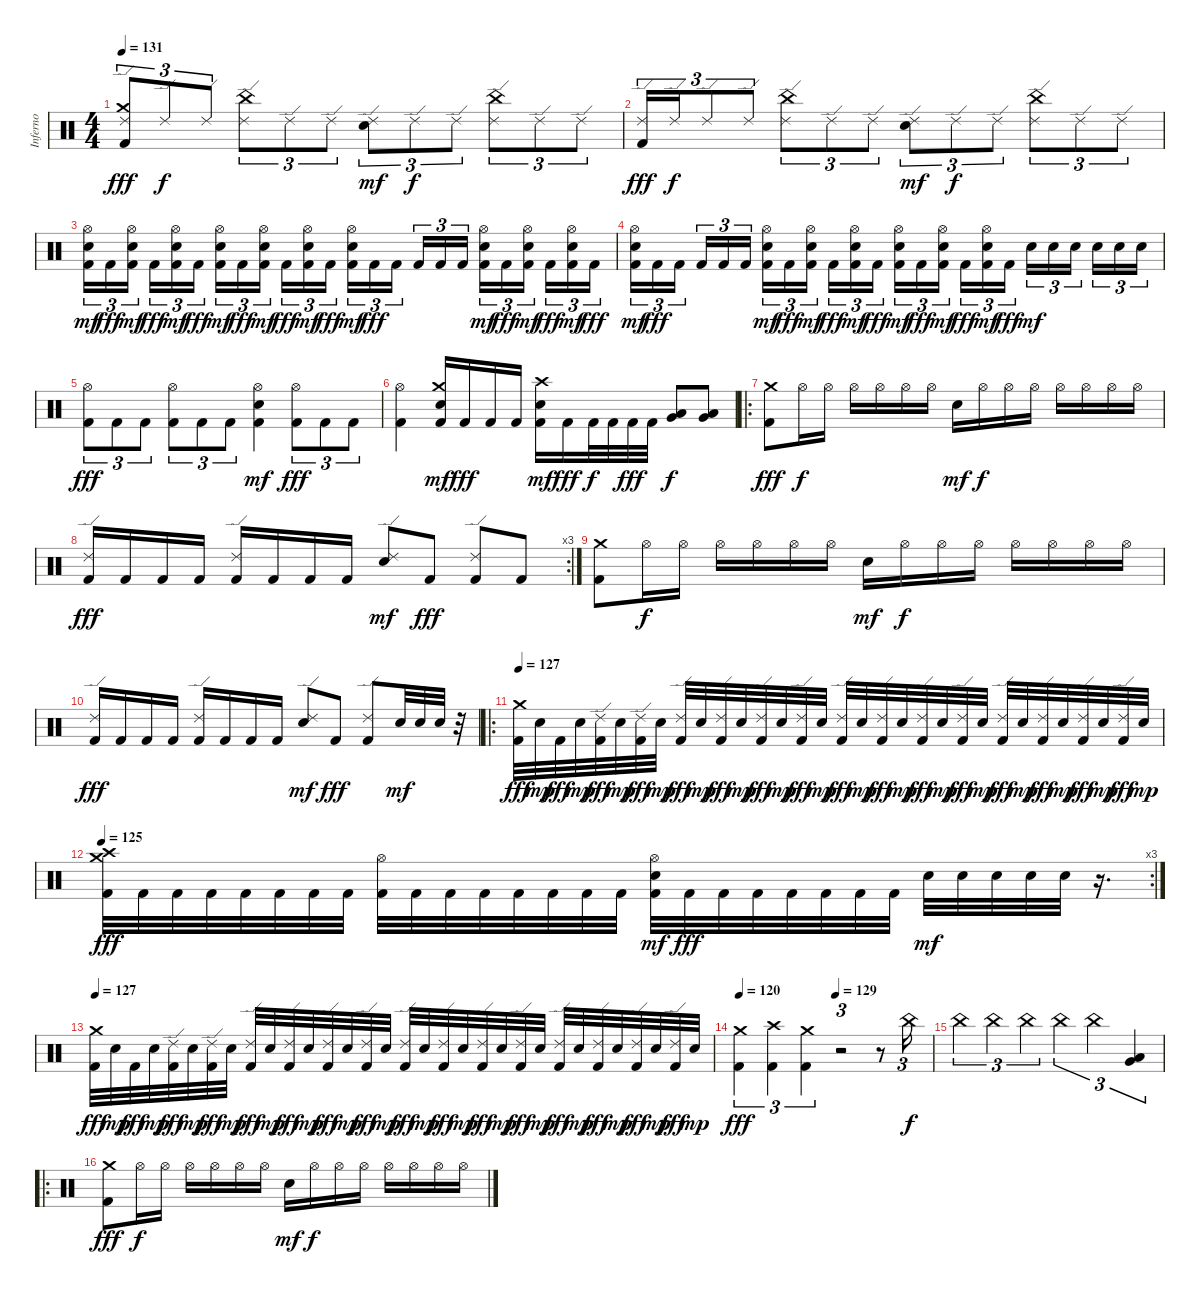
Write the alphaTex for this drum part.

\track ("Inferno" "Inferno") {instrument percussion}
\staff {score}
\articulation defaults
\ts (4 4)
\tempo 131
\clef neutral
\ks c
("Kick (hit) 2" "Crash medium (hit)" "Ride (edge) 2").8{tu (3 2) dy fff} "Ride (edge) 2".8{tu (3 2) dy f} "Ride (edge) 2".8{tu (3 2)} ("Ride (edge) 2" "China (hit)").8{tu (3 2)} "Ride (edge) 2".8{tu (3 2)} "Ride (edge) 2".8{tu (3 2)} ("Electric Snare (hit)" "Ride (edge) 2").8{tu (3 2) dy mf} "Ride (edge) 2".8{tu (3 2) dy f} "Ride (edge) 2".8{tu (3 2)} ("Ride (edge) 2" "China (hit)").8{tu (3 2)} "Ride (edge) 2".8{tu (3 2)} "Ride (edge) 2".8{tu (3 2)} |
("Kick (hit) 2" "Ride (edge) 2").16{tu (3 2) dy fff} "Ride (edge) 2".16{tu (3 2) dy f} "Ride (edge) 2".8{tu (3 2)} "Ride (edge) 2".8{tu (3 2)} ("Ride (edge) 2" "China (hit)").8{tu (3 2)} "Ride (edge) 2".8{tu (3 2)} "Ride (edge) 2".8{tu (3 2)} ("Electric Snare (hit)" "Ride (edge) 2").8{tu (3 2) dy mf} "Ride (edge) 2".8{tu (3 2) dy f} "Ride (edge) 2".8{tu (3 2)} ("Ride (edge) 2" "China (hit)").8{tu (3 2)} "Ride (edge) 2".8{tu (3 2)} "Ride (edge) 2".8{tu (3 2)} |
("Kick (hit) 2" "Electric Snare (hit)" "Hi-Hat (open)").16{tu (3 2) dy mf} "Kick (hit) 2".16{tu (3 2) dy fff} ("Kick (hit) 2" "Electric Snare (hit)" "Hi-Hat (open)").16{tu (3 2) dy mf beam splitsecondary} "Kick (hit) 2".16{tu (3 2) dy fff} ("Kick (hit) 2" "Electric Snare (hit)" "Hi-Hat (open)").16{tu (3 2) dy mf} "Kick (hit) 2".16{tu (3 2) dy fff} ("Kick (hit) 2" "Electric Snare (hit)" "Hi-Hat (open)").16{tu (3 2) dy mf} "Kick (hit) 2".16{tu (3 2) dy fff} ("Kick (hit) 2" "Electric Snare (hit)" "Hi-Hat (open)").16{tu (3 2) dy mf beam splitsecondary} "Kick (hit) 2".16{tu (3 2) dy fff} ("Kick (hit) 2" "Electric Snare (hit)" "Hi-Hat (open)").16{tu (3 2) dy mf} "Kick (hit) 2".16{tu (3 2) dy fff} ("Kick (hit) 2" "Electric Snare (hit)" "Hi-Hat (open)").16{tu (3 2) dy mf} "Kick (hit) 2".16{tu (3 2) dy fff} "Kick (hit) 2".16{tu (3 2) beam splitsecondary} "Kick (hit) 2".16{tu (3 2)} "Kick (hit) 2".16{tu (3 2)} "Kick (hit) 2".16{tu (3 2)} ("Kick (hit) 2" "Electric Snare (hit)" "Hi-Hat (open)").16{tu (3 2) dy mf} "Kick (hit) 2".16{tu (3 2) dy fff} ("Kick (hit) 2" "Electric Snare (hit)" "Hi-Hat (open)").16{tu (3 2) dy mf beam splitsecondary} "Kick (hit) 2".16{tu (3 2) dy fff} ("Kick (hit) 2" "Electric Snare (hit)" "Hi-Hat (open)").16{tu (3 2) dy mf} "Kick (hit) 2".16{tu (3 2) dy fff} |
("Kick (hit) 2" "Electric Snare (hit)" "Hi-Hat (open)").16{tu (3 2) dy mf} "Kick (hit) 2".16{tu (3 2) dy fff} "Kick (hit) 2".16{tu (3 2) beam splitsecondary} "Kick (hit) 2".16{tu (3 2)} "Kick (hit) 2".16{tu (3 2)} "Kick (hit) 2".16{tu (3 2)} ("Kick (hit) 2" "Electric Snare (hit)" "Hi-Hat (open)").16{tu (3 2) dy mf} "Kick (hit) 2".16{tu (3 2) dy fff} ("Kick (hit) 2" "Electric Snare (hit)" "Hi-Hat (open)").16{tu (3 2) dy mf beam splitsecondary} "Kick (hit) 2".16{tu (3 2) dy fff} ("Kick (hit) 2" "Electric Snare (hit)" "Hi-Hat (open)").16{tu (3 2) dy mf} "Kick (hit) 2".16{tu (3 2) dy fff} ("Kick (hit) 2" "Electric Snare (hit)" "Hi-Hat (open)").16{tu (3 2) dy mf} "Kick (hit) 2".16{tu (3 2) dy fff} ("Kick (hit) 2" "Electric Snare (hit)" "Hi-Hat (open)").16{tu (3 2) dy mf beam splitsecondary} "Kick (hit) 2".16{tu (3 2) dy fff} ("Kick (hit) 2" "Electric Snare (hit)" "Hi-Hat (open)").16{tu (3 2) dy mf} "Kick (hit) 2".16{tu (3 2) dy fff} "Electric Snare (hit)".16{tu (3 2) dy mf} "Electric Snare (hit)".16{tu (3 2)} "Electric Snare (hit)".16{tu (3 2) beam splitsecondary} "Electric Snare (hit)".16{tu (3 2)} "Electric Snare (hit)".16{tu (3 2)} "Electric Snare (hit)".16{tu (3 2)} |
("Kick (hit) 2" "Hi-Hat (open)").8{tu (3 2) dy fff} "Kick (hit) 2".8{tu (3 2)} "Kick (hit) 2".8{tu (3 2)} ("Kick (hit) 2" "Hi-Hat (open)").8{tu (3 2)} "Kick (hit) 2".8{tu (3 2)} "Kick (hit) 2".8{tu (3 2)} ("Kick (hit) 2" "Electric Snare (hit)" "Hi-Hat (open)").4{dy mf} ("Kick (hit) 2" "Hi-Hat (open)").8{tu (3 2) dy fff} "Kick (hit) 2".8{tu (3 2)} "Kick (hit) 2".8{tu (3 2)} |
("Kick (hit) 2" "Hi-Hat (open)").4 ("Kick (hit) 2" "Electric Snare (hit)" "Crash medium (hit)").16{dy mf} "Kick (hit) 2".16{dy fff} "Kick (hit) 2".16 "Kick (hit) 2".16 ("Kick (hit) 2" "Electric Snare (hit)" "Crash high (hit)").16{dy mf} "Kick (hit) 2".16{dy fff} "Kick (hit) 2".32{dy f} "Kick (hit) 2".32 "Kick (hit) 2".32{dy fff} "Kick (hit) 2".32 ("Very Low Tom (hit)" "Low Floor Tom (hit)").8{dy f} ("Very Low Tom (hit)" "Low Floor Tom (hit)").8 |
\ro
("Kick (hit) 2" "Crash medium (hit)").8{dy fff} "Hi-Hat (open)".16{dy f} "Hi-Hat (open)".16 "Hi-Hat (open)".16 "Hi-Hat (open)".16 "Hi-Hat (open)".16 "Hi-Hat (open)".16 "Electric Snare (hit)".16{dy mf} "Hi-Hat (open)".16{dy f} "Hi-Hat (open)".16 "Hi-Hat (open)".16 "Hi-Hat (open)".16 "Hi-Hat (open)".16 "Hi-Hat (open)".16 "Hi-Hat (open)".16 |
\rc 3
("Kick (hit) 2" "Ride (edge) 2").16{dy fff} "Kick (hit) 2".16 "Kick (hit) 2".16 "Kick (hit) 2".16 ("Kick (hit) 2" "Ride (edge) 2").16 "Kick (hit) 2".16 "Kick (hit) 2".16 "Kick (hit) 2".16 ("Electric Snare (hit)" "Ride (edge) 2").8{dy mf} "Kick (hit) 2".8{dy fff} ("Kick (hit) 2" "Ride (edge) 2").8 "Kick (hit) 2".8 |
("Kick (hit) 2" "Crash medium (hit)").8 "Hi-Hat (open)".16{dy f} "Hi-Hat (open)".16 "Hi-Hat (open)".16 "Hi-Hat (open)".16 "Hi-Hat (open)".16 "Hi-Hat (open)".16 "Electric Snare (hit)".16{dy mf} "Hi-Hat (open)".16{dy f} "Hi-Hat (open)".16 "Hi-Hat (open)".16 "Hi-Hat (open)".16 "Hi-Hat (open)".16 "Hi-Hat (open)".16 "Hi-Hat (open)".16 |
("Kick (hit) 2" "Ride (edge) 2").16{dy fff} "Kick (hit) 2".16 "Kick (hit) 2".16 "Kick (hit) 2".16 ("Kick (hit) 2" "Ride (edge) 2").16 "Kick (hit) 2".16 "Kick (hit) 2".16 "Kick (hit) 2".16 ("Electric Snare (hit)" "Ride (edge) 2").8{dy mf} "Kick (hit) 2".8{dy fff} ("Kick (hit) 2" "Ride (edge) 2").8 "Electric Snare (hit)".32{dy mf} "Electric Snare (hit)".32 "Electric Snare (hit)".32 r.32 |
\ro
\tempo 127
("Kick (hit) 2" "Crash medium (hit)").32{dy fff} "Electric Snare (hit)".32{dy mp} "Kick (hit) 2".32{dy fff} "Electric Snare (hit)".32{dy mp} ("Kick (hit) 2" "Ride (edge) 2").32{dy fff} "Electric Snare (hit)".32{dy mp} ("Kick (hit) 2" "Ride (edge) 2").32{dy fff} "Electric Snare (hit)".32{dy mp} ("Kick (hit) 2" "Ride (edge) 2").32{dy fff} "Electric Snare (hit)".32{dy mp} ("Kick (hit) 2" "Ride (edge) 2").32{dy fff} "Electric Snare (hit)".32{dy mp} ("Kick (hit) 2" "Ride (edge) 2").32{dy fff} "Electric Snare (hit)".32{dy mp} ("Kick (hit) 2" "Ride (edge) 2").32{dy fff} "Electric Snare (hit)".32{dy mp} ("Kick (hit) 2" "Ride (edge) 2").32{dy fff} "Electric Snare (hit)".32{dy mp} ("Kick (hit) 2" "Ride (edge) 2").32{dy fff} "Electric Snare (hit)".32{dy mp} ("Kick (hit) 2" "Ride (edge) 2").32{dy fff} "Electric Snare (hit)".32{dy mp} ("Kick (hit) 2" "Ride (edge) 2").32{dy fff} "Electric Snare (hit)".32{dy mp} ("Kick (hit) 2" "Ride (edge) 2").32{dy fff} "Electric Snare (hit)".32{dy mp} ("Kick (hit) 2" "Ride (edge) 2").32{dy fff} "Electric Snare (hit)".32{dy mp} ("Kick (hit) 2" "Ride (edge) 2").32{dy fff} "Electric Snare (hit)".32{dy mp} ("Kick (hit) 2" "Ride (edge) 2").32{dy fff} "Electric Snare (hit)".32{dy mp} |
\rc 3
\tempo 125
("Kick (hit) 2" "Crash medium (hit)" "Crash high (hit)").32{dy fff} "Kick (hit) 2".32 "Kick (hit) 2".32 "Kick (hit) 2".32 "Kick (hit) 2".32 "Kick (hit) 2".32 "Kick (hit) 2".32 "Kick (hit) 2".32 ("Kick (hit) 2" "Hi-Hat (open)").32 "Kick (hit) 2".32 "Kick (hit) 2".32 "Kick (hit) 2".32 "Kick (hit) 2".32 "Kick (hit) 2".32 "Kick (hit) 2".32 "Kick (hit) 2".32 ("Kick (hit) 2" "Electric Snare (hit)" "Hi-Hat (open)").32{dy mf} "Kick (hit) 2".32{dy fff} "Kick (hit) 2".32 "Kick (hit) 2".32 "Kick (hit) 2".32 "Kick (hit) 2".32 "Kick (hit) 2".32 "Kick (hit) 2".32 "Electric Snare (hit)".32{dy mf} "Electric Snare (hit)".32 "Electric Snare (hit)".32 "Electric Snare (hit)".32 "Electric Snare (hit)".32 r.16{d} |
\tempo 127
("Kick (hit) 2" "Crash medium (hit)").32{dy fff} "Electric Snare (hit)".32{dy mp} "Kick (hit) 2".32{dy fff} "Electric Snare (hit)".32{dy mp} ("Kick (hit) 2" "Ride (edge) 2").32{dy fff} "Electric Snare (hit)".32{dy mp} ("Kick (hit) 2" "Ride (edge) 2").32{dy fff} "Electric Snare (hit)".32{dy mp} ("Kick (hit) 2" "Ride (edge) 2").32{dy fff} "Electric Snare (hit)".32{dy mp} ("Kick (hit) 2" "Ride (edge) 2").32{dy fff} "Electric Snare (hit)".32{dy mp} ("Kick (hit) 2" "Ride (edge) 2").32{dy fff} "Electric Snare (hit)".32{dy mp} ("Kick (hit) 2" "Ride (edge) 2").32{dy fff} "Electric Snare (hit)".32{dy mp} ("Kick (hit) 2" "Ride (edge) 2").32{dy fff} "Electric Snare (hit)".32{dy mp} ("Kick (hit) 2" "Ride (edge) 2").32{dy fff} "Electric Snare (hit)".32{dy mp} ("Kick (hit) 2" "Ride (edge) 2").32{dy fff} "Electric Snare (hit)".32{dy mp} ("Kick (hit) 2" "Ride (edge) 2").32{dy fff} "Electric Snare (hit)".32{dy mp} ("Kick (hit) 2" "Ride (edge) 2").32{dy fff} "Electric Snare (hit)".32{dy mp} ("Kick (hit) 2" "Ride (edge) 2").32{dy fff} "Electric Snare (hit)".32{dy mp} ("Kick (hit) 2" "Ride (edge) 2").32{dy fff} "Electric Snare (hit)".32{dy mp} ("Kick (hit) 2" "Ride (edge) 2").32{dy fff} "Electric Snare (hit)".32{dy mp} |
\tempo 120
\tempo (129 0.5)
("Kick (hit) 2" "Crash medium (hit)").4{tu (3 2) dy fff} ("Kick (hit) 2" "Crash high (hit)").4{tu (3 2)} ("Kick (hit) 2" "Crash medium (hit)").4{tu (3 2)} r.2{tu (3 2)} r.8 "China (hit)".16{tu (3 2) dy f} |
"China (hit)".4{tu (3 2)} "China (hit)".4{tu (3 2)} "China (hit)".4{tu (3 2)} "China (hit)".4{tu (3 2)} "China (hit)".4{tu (3 2)} ("Very Low Tom (hit)" "Low Floor Tom (hit)").4{tu (3 2)} |
\ro
("Kick (hit) 2" "Crash medium (hit)").8{dy fff} "Hi-Hat (open)".16{dy f} "Hi-Hat (open)".16 "Hi-Hat (open)".16 "Hi-Hat (open)".16 "Hi-Hat (open)".16 "Hi-Hat (open)".16 "Electric Snare (hit)".16{dy mf} "Hi-Hat (open)".16{dy f} "Hi-Hat (open)".16 "Hi-Hat (open)".16 "Hi-Hat (open)".16 "Hi-Hat (open)".16 "Hi-Hat (open)".16 "Hi-Hat (open)".16
